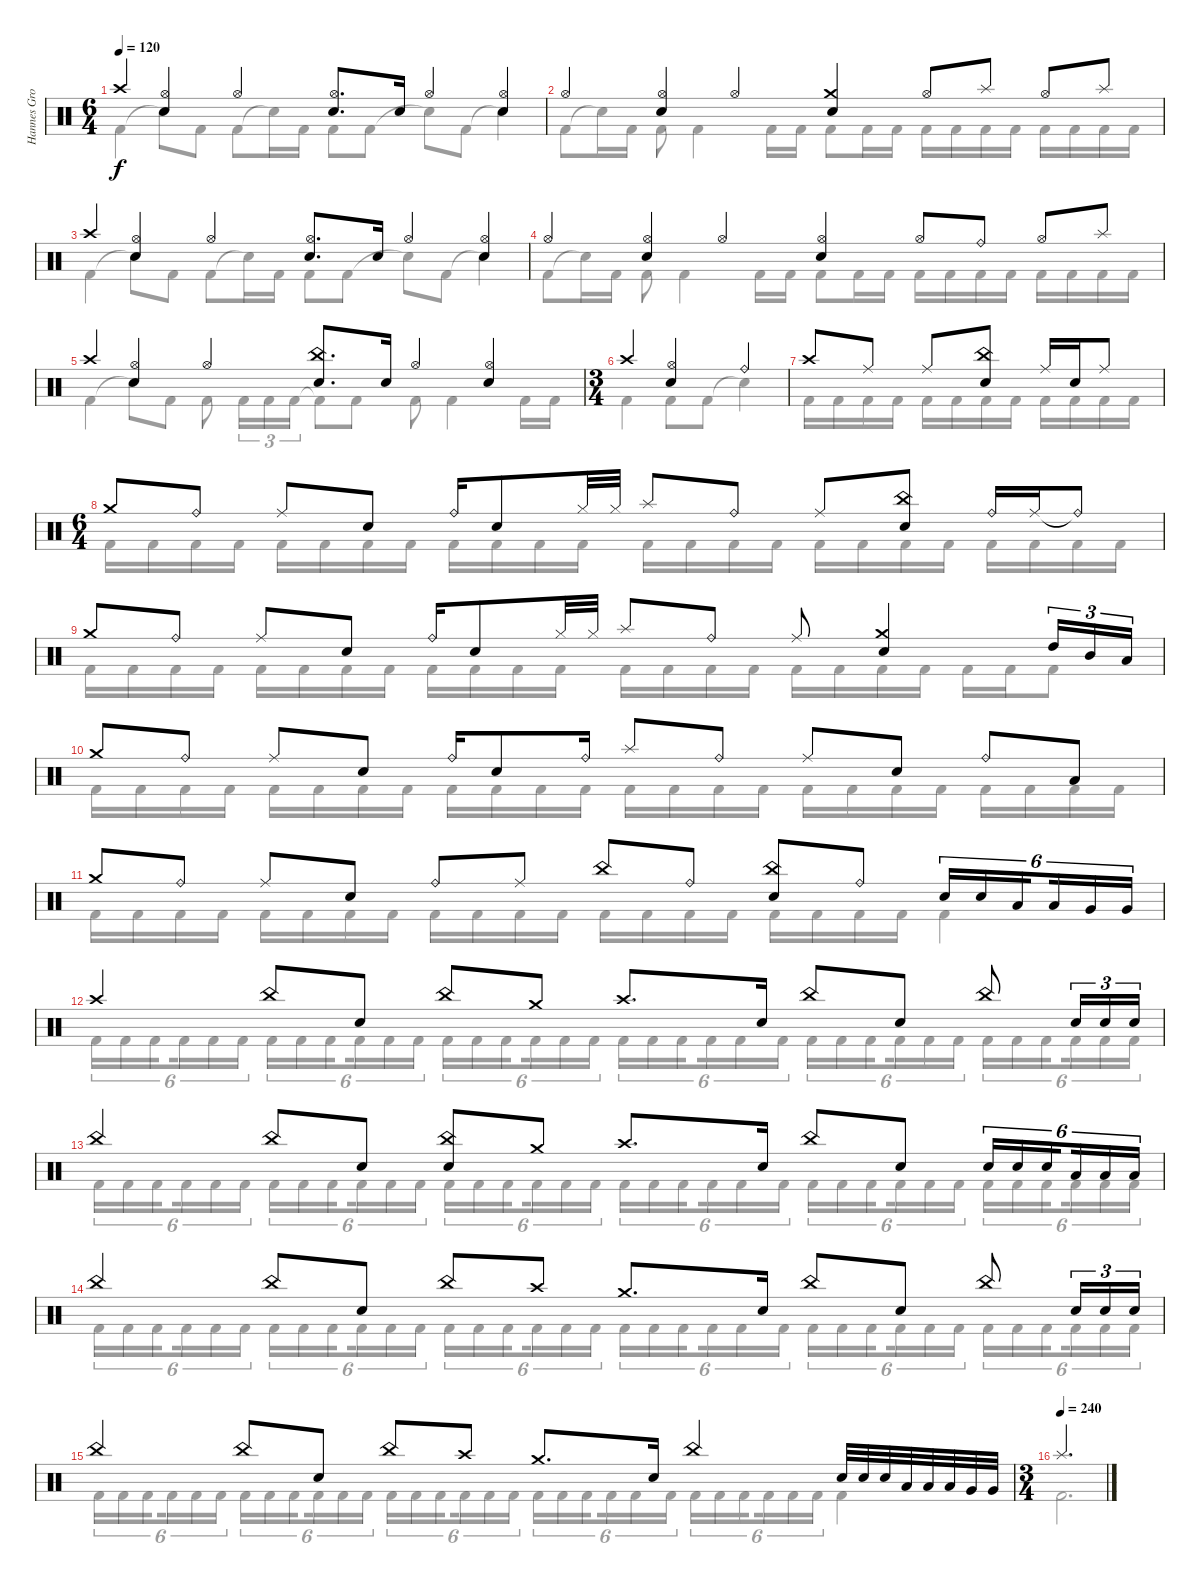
\track ("Hannes Grossmann - drums" "Hannes Gro") {instrument percussion}
\staff {score}
\articulation defaults
\voice
\ts (6 4)
\tempo 120
\clef neutral
\ks c "Crash high (hit)".4{dy f}
("Hi-Hat (open)" "Electric Snare (hit)").4 "Hi-Hat (open)".4 ("Hi-Hat (open)" "Electric Snare (hit)").8{d} "Electric Snare (hit)".16 "Hi-Hat (open)".4 ("Hi-Hat (open)" "Electric Snare (hit)").4 |
"Hi-Hat (open)".4 ("Hi-Hat (open)" "Electric Snare (hit)").4 "Hi-Hat (open)".4 ("Crash medium (hit)" "Electric Snare (hit)").4 "Hi-Hat (open)".8 "Splash (hit)".8 "Hi-Hat (open)".8 "Splash (hit)".8 |
"Crash high (hit)".4 ("Hi-Hat (open)" "Electric Snare (hit)").4 "Hi-Hat (open)".4 ("Hi-Hat (open)" "Electric Snare (hit)").8{d} "Electric Snare (hit)".16 "Hi-Hat (open)".4 ("Hi-Hat (open)" "Electric Snare (hit)").4 |
"Hi-Hat (open)".4 ("Hi-Hat (open)" "Electric Snare (hit)").4 "Hi-Hat (open)".4 ("Hi-Hat (open)" "Electric Snare (hit)").4 "Hi-Hat (open)".8 "Ride (bell)".8 "Hi-Hat (open)".8 "Splash (hit)".8 |
"Crash high (hit)".4 ("Hi-Hat (open)" "Electric Snare (hit)").4 "Hi-Hat (open)".4 ("China (hit)" "Electric Snare (hit)").8{d} "Electric Snare (hit)".16 "Hi-Hat (open)".4 ("Hi-Hat (open)" "Electric Snare (hit)").4 |
\ts (3 4)
"Crash high (hit)".4 ("Hi-Hat (open)" "Electric Snare (hit)").4 "Ride (bell)".4 |
"Crash high (hit)".8 "Ride (middle)".8 "Ride (middle)".8 ("China (hit)" "Electric Snare (hit)").8 "Ride (middle)".16 "Electric Snare (hit)".16 "Ride (middle)".8 |
\ts (6 4)
"Crash medium (hit)".8 "Ride (bell)".8 "Ride (middle)".8 "Electric Snare (hit)".8 "Ride (bell)".16 "Electric Snare (hit)".8 "Hi-Hat (closed)".32 "Hi-Hat (closed)".32 "Splash (hit)".8 "Ride (bell)".8 "Ride (middle)".8 ("China (hit)" "Electric Snare (hit)").8 "Ride (bell)".16 "Ride (middle)".16 "Ride (bell)"{t}.8 |
"Crash medium (hit)".8 "Ride (bell)".8 "Ride (middle)".8 "Electric Snare (hit)".8 "Ride (bell)".16 "Electric Snare (hit)".8 "Hi-Hat (closed)".32 "Hi-Hat (closed)".32 "Splash (hit)".8 "Ride (bell)".8 "Ride (middle)".8 ("Crash medium (hit)" "Electric Snare (hit)").4 "High Tom (hit)".16{tu (3 2)} "Mid Tom (hit)".16{tu (3 2)} "Low Tom (hit)".16{tu (3 2)} |
"Crash medium (hit)".8 "Ride (bell)".8 "Ride (middle)".8 "Electric Snare (hit)".8 "Ride (bell)".16 "Electric Snare (hit)".8 "Ride (bell)".16 "Splash (hit)".8 "Ride (bell)".8 "Ride (middle)".8 "Electric Snare (hit)".8 "Ride (bell)".8 "Low Tom (hit)".8 |
"Crash medium (hit)".8 "Ride (bell)".8 "Ride (middle)".8 "Electric Snare (hit)".8 "Ride (bell)".8 "Ride (middle)".8 "China (hit)".8 "Ride (bell)".8 ("China (hit)" "Electric Snare (hit)").8 "Ride (bell)".8 "Electric Snare (hit)".16{tu (6 4)} "Electric Snare (hit)".16{tu (6 4)} "Low Tom (hit)".16{tu (6 4) beam splitsecondary} "Low Tom (hit)".16{tu (6 4)} "Very Low Tom (hit)".16{tu (6 4)} "Very Low Tom (hit)".16{tu (6 4)} |
"Crash high (hit)".4 "China (hit)".8 "Electric Snare (hit)".8 "China (hit)".8 "Crash medium (hit)".8 "Crash high (hit)".8{d} "Electric Snare (hit)".16 "China (hit)".8 "Electric Snare (hit)".8 "China (hit)".8 "Electric Snare (hit)".16{tu (3 2)} "Electric Snare (hit)".16{tu (3 2)} "Electric Snare (hit)".16{tu (3 2)} |
"China (hit)".4 "China (hit)".8 "Electric Snare (hit)".8 ("China (hit)" "Electric Snare (hit)").8 "Crash medium (hit)".8 "Crash high (hit)".8{d} "Electric Snare (hit)".16 "China (hit)".8 "Electric Snare (hit)".8 "Electric Snare (hit)".16{tu (6 4)} "Electric Snare (hit)".16{tu (6 4)} "Electric Snare (hit)".16{tu (6 4) beam splitsecondary} "Low Tom (hit)".16{tu (6 4)} "Low Tom (hit)".16{tu (6 4)} "Low Tom (hit)".16{tu (6 4)} |
"China (hit)".4 "China (hit)".8 "Electric Snare (hit)".8 "China (hit)".8 "Crash high (hit)".8 "Crash medium (hit)".8{d} "Electric Snare (hit)".16 "China (hit)".8 "Electric Snare (hit)".8 "China (hit)".8 "Electric Snare (hit)".16{tu (3 2)} "Electric Snare (hit)".16{tu (3 2)} "Electric Snare (hit)".16{tu (3 2)} |
"China (hit)".4 "China (hit)".8 "Electric Snare (hit)".8 "China (hit)".8 "Crash high (hit)".8 "Crash medium (hit)".8{d} "Electric Snare (hit)".16 "China (hit)".4 "Electric Snare (hit)".32 "Electric Snare (hit)".32 "Electric Snare (hit)".32 "Low Tom (hit)".32 "Low Tom (hit)".32 "Low Tom (hit)".32 "Very Low Tom (hit)".32 "Very Low Tom (hit)".32 |
\ts (3 4)
\tempo (240)
"Splash (hit)".2{d}
\voice
\clef neutral
\ottava regular
\simile none
\ks c "Kick (hit) 2".4{dy f} "Snare (hit)"{t}.8 "Kick (hit) 2".8 "Kick (hit) 2".8 "Snare (hit)"{t}.16 "Kick (hit) 2".16 "Kick (hit) 2".8 "Kick (hit) 2".8 "Snare (hit)"{t}.8 "Kick (hit) 2".8 "Snare (hit)"{t}.4
|
"Kick (hit) 2".8 "Snare (hit)"{t}.16 "Kick (hit) 2".16 "Kick (hit) 2".8 "Kick (hit) 2".4 "Kick (hit) 2".16 "Kick (hit) 2".16 "Kick (hit) 2".8 "Kick (hit) 2".16 "Kick (hit) 2".16 "Kick (hit) 2".16 "Kick (hit) 2".16 "Kick (hit) 2".16 "Kick (hit) 2".16 "Kick (hit) 2".16 "Kick (hit) 2".16 "Kick (hit) 2".16 "Kick (hit) 2".16 |
"Kick (hit) 2".4 "Snare (hit)"{t}.8 "Kick (hit) 2".8 "Kick (hit) 2".8 "Snare (hit)"{t}.16 "Kick (hit) 2".16 "Kick (hit) 2".8 "Kick (hit) 2".8 "Snare (hit)"{t}.8 "Kick (hit) 2".8 "Snare (hit)"{t}.4 |
"Kick (hit) 2".8 "Snare (hit)"{t}.16 "Kick (hit) 2".16 "Kick (hit) 2".8 "Kick (hit) 2".4 "Kick (hit) 2".16 "Kick (hit) 2".16 "Kick (hit) 2".8 "Kick (hit) 2".16 "Kick (hit) 2".16 "Kick (hit) 2".16 "Kick (hit) 2".16 "Kick (hit) 2".16 "Kick (hit) 2".16 "Kick (hit) 2".16 "Kick (hit) 2".16 "Kick (hit) 2".16 "Kick (hit) 2".16 |
"Kick (hit) 2".4 "Snare (hit)"{t}.8 "Kick (hit) 2".8 "Kick (hit) 2".8 "Kick (hit) 2".16{tu (3 2)} "Kick (hit) 2".16{tu (3 2)} "Kick (hit) 2".16{tu (3 2)} "Kick (hit) 2"{t}.8 "Kick (hit) 2".8 "Kick (hit) 2".8 "Kick (hit) 2".4 "Kick (hit) 2".16 "Kick (hit) 2".16 |
"Kick (hit) 2".4 "Kick (hit) 2".8 "Kick (hit) 2".8 "Snare (hit)"{t}.4 |
"Kick (hit) 2".16 "Kick (hit) 2".16 "Kick (hit) 2".16 "Kick (hit) 2".16 "Kick (hit) 2".16 "Kick (hit) 2".16 "Kick (hit) 2".16 "Kick (hit) 2".16 "Kick (hit) 2".16 "Kick (hit) 2".16 "Kick (hit) 2".16 "Kick (hit) 2".16 |
"Kick (hit) 2".16 "Kick (hit) 2".16 "Kick (hit) 2".16 "Kick (hit) 2".16 "Kick (hit) 2".16 "Kick (hit) 2".16 "Kick (hit) 2".16 "Kick (hit) 2".16 "Kick (hit) 2".16 "Kick (hit) 2".16 "Kick (hit) 2".16 "Kick (hit) 2".16 "Kick (hit) 2".16 "Kick (hit) 2".16 "Kick (hit) 2".16 "Kick (hit) 2".16 "Kick (hit) 2".16 "Kick (hit) 2".16 "Kick (hit) 2".16 "Kick (hit) 2".16 "Kick (hit) 2".16 "Kick (hit) 2".16 "Kick (hit) 2".16 "Kick (hit) 2".16 |
"Kick (hit) 2".16 "Kick (hit) 2".16 "Kick (hit) 2".16 "Kick (hit) 2".16 "Kick (hit) 2".16 "Kick (hit) 2".16 "Kick (hit) 2".16 "Kick (hit) 2".16 "Kick (hit) 2".16 "Kick (hit) 2".16 "Kick (hit) 2".16 "Kick (hit) 2".16 "Kick (hit) 2".16 "Kick (hit) 2".16 "Kick (hit) 2".16 "Kick (hit) 2".16 "Kick (hit) 2".16 "Kick (hit) 2".16 "Kick (hit) 2".16 "Kick (hit) 2".16 "Kick (hit) 2".16 "Kick (hit) 2".16 "Kick (hit) 2".8 |
"Kick (hit) 2".16 "Kick (hit) 2".16 "Kick (hit) 2".16 "Kick (hit) 2".16 "Kick (hit) 2".16 "Kick (hit) 2".16 "Kick (hit) 2".16 "Kick (hit) 2".16 "Kick (hit) 2".16 "Kick (hit) 2".16 "Kick (hit) 2".16 "Kick (hit) 2".16 "Kick (hit) 2".16 "Kick (hit) 2".16 "Kick (hit) 2".16 "Kick (hit) 2".16 "Kick (hit) 2".16 "Kick (hit) 2".16 "Kick (hit) 2".16 "Kick (hit) 2".16 "Kick (hit) 2".16 "Kick (hit) 2".16 "Kick (hit) 2".16 "Kick (hit) 2".16 |
"Kick (hit) 2".16 "Kick (hit) 2".16 "Kick (hit) 2".16 "Kick (hit) 2".16 "Kick (hit) 2".16 "Kick (hit) 2".16 "Kick (hit) 2".16 "Kick (hit) 2".16 "Kick (hit) 2".16 "Kick (hit) 2".16 "Kick (hit) 2".16 "Kick (hit) 2".16 "Kick (hit) 2".16 "Kick (hit) 2".16 "Kick (hit) 2".16 "Kick (hit) 2".16 "Kick (hit) 2".16 "Kick (hit) 2".16 "Kick (hit) 2".16 "Kick (hit) 2".16 "Kick (hit) 2".4 |
"Kick (hit) 2".16{tu (6 4)} "Kick (hit) 2".16{tu (6 4)} "Kick (hit) 2".16{tu (6 4) beam splitsecondary} "Kick (hit) 2".16{tu (6 4)} "Kick (hit) 2".16{tu (6 4)} "Kick (hit) 2".16{tu (6 4) beam splitsecondary} "Kick (hit) 2".16{tu (6 4)} "Kick (hit) 2".16{tu (6 4)} "Kick (hit) 2".16{tu (6 4) beam splitsecondary} "Kick (hit) 2".16{tu (6 4)} "Kick (hit) 2".16{tu (6 4)} "Kick (hit) 2".16{tu (6 4) beam splitsecondary} "Kick (hit) 2".16{tu (6 4)} "Kick (hit) 2".16{tu (6 4)} "Kick (hit) 2".16{tu (6 4) beam splitsecondary} "Kick (hit) 2".16{tu (6 4)} "Kick (hit) 2".16{tu (6 4)} "Kick (hit) 2".16{tu (6 4)} "Kick (hit) 2".16{tu (6 4)} "Kick (hit) 2".16{tu (6 4)} "Kick (hit) 2".16{tu (6 4) beam splitsecondary} "Kick (hit) 2".16{tu (6 4)} "Kick (hit) 2".16{tu (6 4)} "Kick (hit) 2".16{tu (6 4) beam splitsecondary} "Kick (hit) 2".16{tu (6 4)} "Kick (hit) 2".16{tu (6 4)} "Kick (hit) 2".16{tu (6 4) beam splitsecondary} "Kick (hit) 2".16{tu (6 4)} "Kick (hit) 2".16{tu (6 4)} "Kick (hit) 2".16{tu (6 4) beam splitsecondary} "Kick (hit) 2".16{tu (6 4)} "Kick (hit) 2".16{tu (6 4)} "Kick (hit) 2".16{tu (6 4) beam splitsecondary} "Kick (hit) 2".16{tu (6 4)} "Kick (hit) 2".16{tu (6 4)} "Kick (hit) 2".16{tu (6 4)} |
"Kick (hit) 2".16{tu (6 4)} "Kick (hit) 2".16{tu (6 4)} "Kick (hit) 2".16{tu (6 4) beam splitsecondary} "Kick (hit) 2".16{tu (6 4)} "Kick (hit) 2".16{tu (6 4)} "Kick (hit) 2".16{tu (6 4) beam splitsecondary} "Kick (hit) 2".16{tu (6 4)} "Kick (hit) 2".16{tu (6 4)} "Kick (hit) 2".16{tu (6 4) beam splitsecondary} "Kick (hit) 2".16{tu (6 4)} "Kick (hit) 2".16{tu (6 4)} "Kick (hit) 2".16{tu (6 4) beam splitsecondary} "Kick (hit) 2".16{tu (6 4)} "Kick (hit) 2".16{tu (6 4)} "Kick (hit) 2".16{tu (6 4) beam splitsecondary} "Kick (hit) 2".16{tu (6 4)} "Kick (hit) 2".16{tu (6 4)} "Kick (hit) 2".16{tu (6 4)} "Kick (hit) 2".16{tu (6 4)} "Kick (hit) 2".16{tu (6 4)} "Kick (hit) 2".16{tu (6 4) beam splitsecondary} "Kick (hit) 2".16{tu (6 4)} "Kick (hit) 2".16{tu (6 4)} "Kick (hit) 2".16{tu (6 4) beam splitsecondary} "Kick (hit) 2".16{tu (6 4)} "Kick (hit) 2".16{tu (6 4)} "Kick (hit) 2".16{tu (6 4) beam splitsecondary} "Kick (hit) 2".16{tu (6 4)} "Kick (hit) 2".16{tu (6 4)} "Kick (hit) 2".16{tu (6 4) beam splitsecondary} "Kick (hit) 2".16{tu (6 4)} "Kick (hit) 2".16{tu (6 4)} "Kick (hit) 2".16{tu (6 4) beam splitsecondary} "Kick (hit) 2".16{tu (6 4)} "Kick (hit) 2".16{tu (6 4)} "Kick (hit) 2".16{tu (6 4)} |
"Kick (hit) 2".16{tu (6 4)} "Kick (hit) 2".16{tu (6 4)} "Kick (hit) 2".16{tu (6 4) beam splitsecondary} "Kick (hit) 2".16{tu (6 4)} "Kick (hit) 2".16{tu (6 4)} "Kick (hit) 2".16{tu (6 4) beam splitsecondary} "Kick (hit) 2".16{tu (6 4)} "Kick (hit) 2".16{tu (6 4)} "Kick (hit) 2".16{tu (6 4) beam splitsecondary} "Kick (hit) 2".16{tu (6 4)} "Kick (hit) 2".16{tu (6 4)} "Kick (hit) 2".16{tu (6 4) beam splitsecondary} "Kick (hit) 2".16{tu (6 4)} "Kick (hit) 2".16{tu (6 4)} "Kick (hit) 2".16{tu (6 4) beam splitsecondary} "Kick (hit) 2".16{tu (6 4)} "Kick (hit) 2".16{tu (6 4)} "Kick (hit) 2".16{tu (6 4)} "Kick (hit) 2".16{tu (6 4)} "Kick (hit) 2".16{tu (6 4)} "Kick (hit) 2".16{tu (6 4) beam splitsecondary} "Kick (hit) 2".16{tu (6 4)} "Kick (hit) 2".16{tu (6 4)} "Kick (hit) 2".16{tu (6 4) beam splitsecondary} "Kick (hit) 2".16{tu (6 4)} "Kick (hit) 2".16{tu (6 4)} "Kick (hit) 2".16{tu (6 4) beam splitsecondary} "Kick (hit) 2".16{tu (6 4)} "Kick (hit) 2".16{tu (6 4)} "Kick (hit) 2".16{tu (6 4) beam splitsecondary} "Kick (hit) 2".16{tu (6 4)} "Kick (hit) 2".16{tu (6 4)} "Kick (hit) 2".16{tu (6 4) beam splitsecondary} "Kick (hit) 2".16{tu (6 4)} "Kick (hit) 2".16{tu (6 4)} "Kick (hit) 2".16{tu (6 4)} |
"Kick (hit) 2".16{tu (6 4)} "Kick (hit) 2".16{tu (6 4)} "Kick (hit) 2".16{tu (6 4) beam splitsecondary} "Kick (hit) 2".16{tu (6 4)} "Kick (hit) 2".16{tu (6 4)} "Kick (hit) 2".16{tu (6 4) beam splitsecondary} "Kick (hit) 2".16{tu (6 4)} "Kick (hit) 2".16{tu (6 4)} "Kick (hit) 2".16{tu (6 4) beam splitsecondary} "Kick (hit) 2".16{tu (6 4)} "Kick (hit) 2".16{tu (6 4)} "Kick (hit) 2".16{tu (6 4) beam splitsecondary} "Kick (hit) 2".16{tu (6 4)} "Kick (hit) 2".16{tu (6 4)} "Kick (hit) 2".16{tu (6 4) beam splitsecondary} "Kick (hit) 2".16{tu (6 4)} "Kick (hit) 2".16{tu (6 4)} "Kick (hit) 2".16{tu (6 4)} "Kick (hit) 2".16{tu (6 4)} "Kick (hit) 2".16{tu (6 4)} "Kick (hit) 2".16{tu (6 4) beam splitsecondary} "Kick (hit) 2".16{tu (6 4)} "Kick (hit) 2".16{tu (6 4)} "Kick (hit) 2".16{tu (6 4) beam splitsecondary} "Kick (hit) 2".16{tu (6 4)} "Kick (hit) 2".16{tu (6 4)} "Kick (hit) 2".16{tu (6 4) beam splitsecondary} "Kick (hit) 2".16{tu (6 4)} "Kick (hit) 2".16{tu (6 4)} "Kick (hit) 2".16{tu (6 4)} "Kick (hit) 2".4 |
"Kick (hit) 2".2{d}
